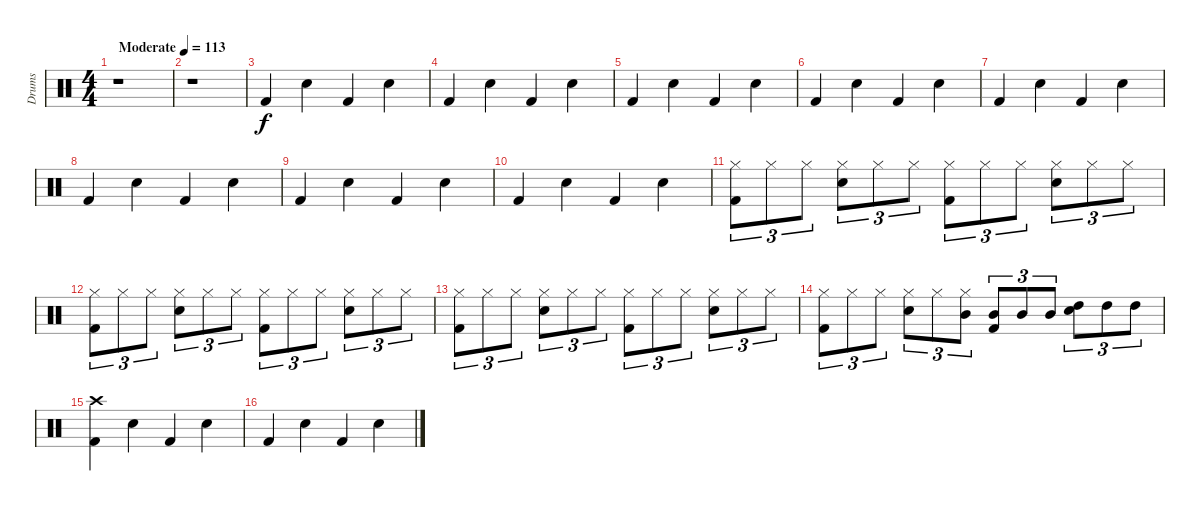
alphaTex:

\track ("Drums" "Drums") {instrument percussion}
\staff {score}
\articulation defaults
\ts (4 4)
\tempo (113 "Moderate")
\clef neutral
\ks c
r.1{dy f} |
r.1 |
"Kick (hit) 2".4 "Electric Snare (hit)".4 "Kick (hit) 2".4 "Electric Snare (hit)".4 |
"Kick (hit) 2".4 "Electric Snare (hit)".4 "Kick (hit) 2".4 "Electric Snare (hit)".4 |
"Kick (hit) 2".4 "Electric Snare (hit)".4 "Kick (hit) 2".4 "Electric Snare (hit)".4 |
"Kick (hit) 2".4 "Electric Snare (hit)".4 "Kick (hit) 2".4 "Electric Snare (hit)".4 |
"Kick (hit) 2".4 "Electric Snare (hit)".4 "Kick (hit) 2".4 "Electric Snare (hit)".4 |
"Kick (hit) 2".4 "Electric Snare (hit)".4 "Kick (hit) 2".4 "Electric Snare (hit)".4 |
"Kick (hit) 2".4 "Electric Snare (hit)".4 "Kick (hit) 2".4 "Electric Snare (hit)".4 |
"Kick (hit) 2".4 "Electric Snare (hit)".4 "Kick (hit) 2".4 "Electric Snare (hit)".4 |
("Hi-Hat (closed)" "Kick (hit) 2").8{tu (3 2)} "Hi-Hat (closed)".8{tu (3 2)} "Hi-Hat (closed)".8{tu (3 2)} ("Hi-Hat (closed)" "Electric Snare (hit)").8{tu (3 2)} "Hi-Hat (closed)".8{tu (3 2)} "Hi-Hat (closed)".8{tu (3 2)} ("Hi-Hat (closed)" "Kick (hit) 2").8{tu (3 2)} "Hi-Hat (closed)".8{tu (3 2)} "Hi-Hat (closed)".8{tu (3 2)} ("Hi-Hat (closed)" "Electric Snare (hit)").8{tu (3 2)} "Hi-Hat (closed)".8{tu (3 2)} "Hi-Hat (closed)".8{tu (3 2)} |
("Hi-Hat (closed)" "Kick (hit) 2").8{tu (3 2)} "Hi-Hat (closed)".8{tu (3 2)} "Hi-Hat (closed)".8{tu (3 2)} ("Hi-Hat (closed)" "Electric Snare (hit)").8{tu (3 2)} "Hi-Hat (closed)".8{tu (3 2)} "Hi-Hat (closed)".8{tu (3 2)} ("Hi-Hat (closed)" "Kick (hit) 2").8{tu (3 2)} "Hi-Hat (closed)".8{tu (3 2)} "Hi-Hat (closed)".8{tu (3 2)} ("Hi-Hat (closed)" "Electric Snare (hit)").8{tu (3 2)} "Hi-Hat (closed)".8{tu (3 2)} "Hi-Hat (closed)".8{tu (3 2)} |
("Hi-Hat (closed)" "Kick (hit) 2").8{tu (3 2)} "Hi-Hat (closed)".8{tu (3 2)} "Hi-Hat (closed)".8{tu (3 2)} ("Hi-Hat (closed)" "Electric Snare (hit)").8{tu (3 2)} "Hi-Hat (closed)".8{tu (3 2)} "Hi-Hat (closed)".8{tu (3 2)} ("Hi-Hat (closed)" "Kick (hit) 2").8{tu (3 2)} "Hi-Hat (closed)".8{tu (3 2)} "Hi-Hat (closed)".8{tu (3 2)} ("Hi-Hat (closed)" "Electric Snare (hit)").8{tu (3 2)} "Hi-Hat (closed)".8{tu (3 2)} "Hi-Hat (closed)".8{tu (3 2)} |
("Hi-Hat (closed)" "Kick (hit) 2").8{tu (3 2)} "Hi-Hat (closed)".8{tu (3 2)} "Hi-Hat (closed)".8{tu (3 2)} ("Hi-Hat (closed)" "Electric Snare (hit)").8{tu (3 2)} "Hi-Hat (closed)".8{tu (3 2)} ("Mid Tom (hit)" "Hi-Hat (closed)").8{tu (3 2)} ("Mid Tom (hit)" "Kick (hit) 2").8{tu (3 2)} "Mid Tom (hit)".8{tu (3 2)} "Mid Tom (hit)".8{tu (3 2)} ("High Tom (hit)" "Electric Snare (hit)").8{tu (3 2)} "High Tom (hit)".8{tu (3 2)} "High Tom (hit)".8{tu (3 2)} |
("Crash high (hit)" "Kick (hit) 2").4 "Electric Snare (hit)".4 "Kick (hit) 2".4 "Electric Snare (hit)".4 |
"Kick (hit) 2".4 "Electric Snare (hit)".4 "Kick (hit) 2".4 "Electric Snare (hit)".4
